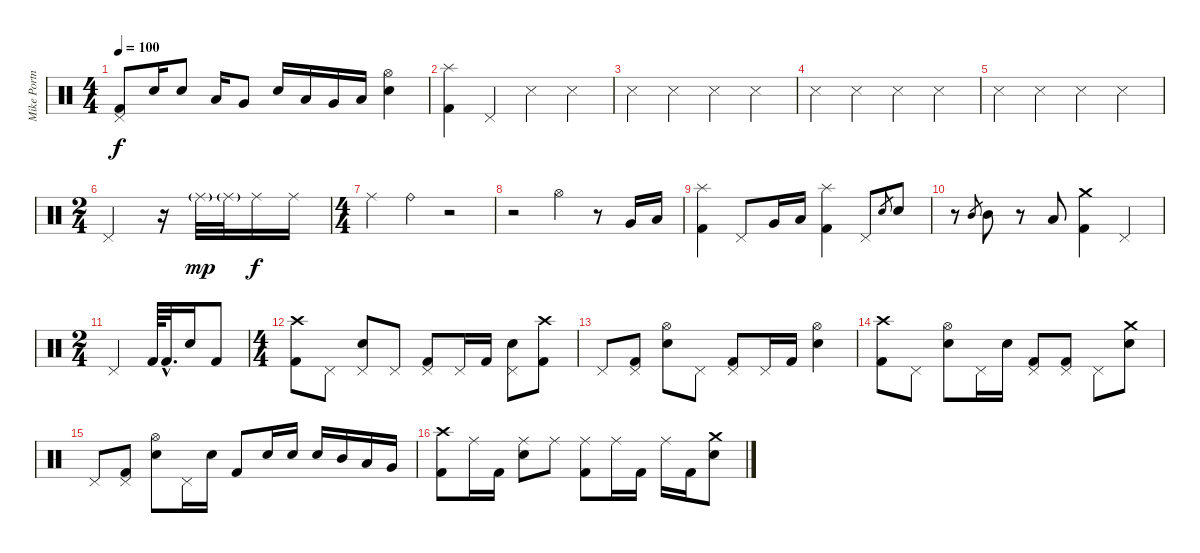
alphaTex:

\track ("Mike Portnoy" "Mike Portn") {instrument percussion}
\staff {score}
\articulation defaults
\ts (4 4)
\tempo 100
\clef neutral
\ks c
("Pedal Hi-Hat (hit)" "Kick (hit) 2").8{dy f} "Electric Snare (hit)".16 "Electric Snare (hit)".8 "Low Tom (hit)".16 "Very Low Tom (hit)".8 "Electric Snare (hit)".16 "Low Tom (hit)".16 "Very Low Tom (hit)".16 "Low Floor Tom (hit)".16 ("Hi-Hat (open)" "Electric Snare (hit)").4 |
("Splash (hit)" "Kick (hit) 2").4 "Pedal Hi-Hat (hit)".4 "Snare (side stick) 3".4 "Snare (side stick) 3".4 |
"Snare (side stick) 3".4 "Snare (side stick) 3".4 "Snare (side stick) 3".4 "Snare (side stick) 3".4 |
"Snare (side stick) 3".4 "Snare (side stick) 3".4 "Snare (side stick) 3".4 "Snare (side stick) 3".4 |
"Snare (side stick) 3".4 "Snare (side stick) 3".4 "Snare (side stick) 3".4 "Snare (side stick) 3".4 |
\ts (2 4)
"Pedal Hi-Hat (hit)".4 r.16 "Ride (middle)"{g}.32{dy mp} "Ride (middle)"{g}.32 "Ride (middle)".16{dy f} "Ride (middle)".16 |
\ts (4 4)
"Ride (middle)".4 "Ride (bell)".4 r.2 |
r.2 "Hi-Hat (open)".4 r.8 "Very Low Tom (hit)".16 "Low Floor Tom (hit)".16 |
("Splash (hit)" "Kick (hit) 2").4 "Pedal Hi-Hat (hit)".8 "Very Low Tom (hit)".16 "Low Floor Tom (hit)".16 ("Splash (hit)" "Kick (hit) 2").4 "Pedal Hi-Hat (hit)".8 "Electric Snare (hit)".8{gr} "Electric Snare (hit)".8 |
r.8 "Mid Tom (hit)".8{gr} "Mid Tom (hit)".8 r.8 "Low Tom (hit)".8 ("Crash medium (hit)" "Kick (hit) 2").4 "Pedal Hi-Hat (hit)".4 |
\ts (2 4)
"Pedal Hi-Hat (hit)".4 "Kick (hit) 2".64 "Kick (hit) 2"{hac}.32{d} "Electric Snare (hit)".16 "Kick (hit) 2".8 |
\ts (4 4)
("Crash high (hit)" "Kick (hit) 2").8 "Pedal Hi-Hat (hit)".8 ("Pedal Hi-Hat (hit)" "Electric Snare (hit)").8 "Pedal Hi-Hat (hit)".8 ("Pedal Hi-Hat (hit)" "Kick (hit) 2").8 "Pedal Hi-Hat (hit)".16 "Kick (hit) 2".16 ("Pedal Hi-Hat (hit)" "Electric Snare (hit)").8 ("Crash high (hit)" "Kick (hit) 2").8 |
"Pedal Hi-Hat (hit)".8 ("Pedal Hi-Hat (hit)" "Kick (hit) 2").8 ("Hi-Hat (open)" "Electric Snare (hit)").8 "Pedal Hi-Hat (hit)".8 ("Pedal Hi-Hat (hit)" "Kick (hit) 2").8 "Pedal Hi-Hat (hit)".16 "Kick (hit) 2".16 ("Hi-Hat (open)" "Electric Snare (hit)").4 |
("Crash high (hit)" "Kick (hit) 2").8 "Pedal Hi-Hat (hit)".8 ("Hi-Hat (open)" "Electric Snare (hit)").8 "Pedal Hi-Hat (hit)".16 "Electric Snare (hit)".16 ("Pedal Hi-Hat (hit)" "Kick (hit) 2").8 ("Pedal Hi-Hat (hit)" "Kick (hit) 2").8 "Pedal Hi-Hat (hit)".8 ("Crash medium (hit)" "Electric Snare (hit)").8 |
"Pedal Hi-Hat (hit)".8 ("Pedal Hi-Hat (hit)" "Kick (hit) 2").8 ("Hi-Hat (open)" "Electric Snare (hit)").8 "Pedal Hi-Hat (hit)".16 "Electric Snare (hit)".16 "Kick (hit) 2".8 "Electric Snare (hit)".16 "Electric Snare (hit)".16 "Electric Snare (hit)".16 "Mid Tom (hit)".16 "Low Tom (hit)".16 "Very Low Tom (hit)".16 |
("Crash high (hit)" "Kick (hit) 2").8 "Ride (middle)".16 "Kick (hit) 2".16 ("Ride (middle)" "Electric Snare (hit)").8 "Ride (middle)".8 ("Ride (middle)" "Kick (hit) 2").8 "Ride (middle)".16 "Kick (hit) 2".16 "Ride (middle)".16 "Kick (hit) 2".16 ("Crash medium (hit)" "Electric Snare (hit)").8
